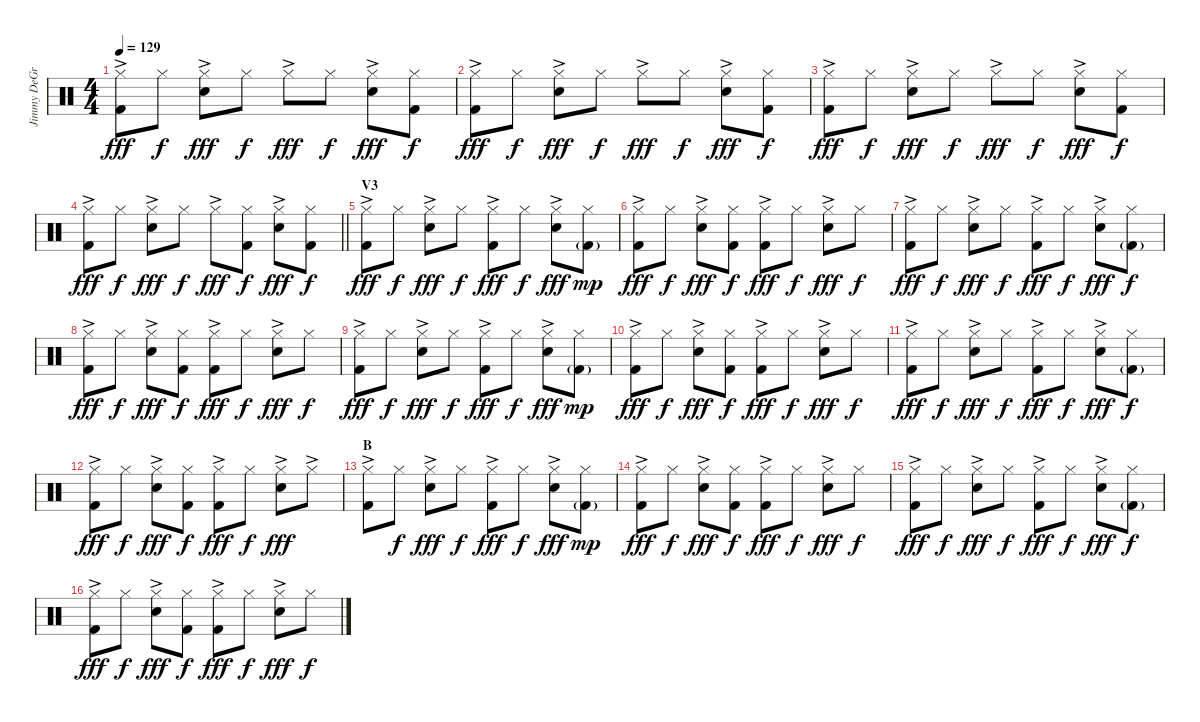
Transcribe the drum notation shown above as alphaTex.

\track ("Jimmy DeGrasso (Drums)" "Jimmy DeGr") {instrument percussion}
\staff {score}
\articulation defaults
\ts (4 4)
\tempo 129
\clef neutral
\ks c
("Hi-Hat (closed)"{ac} "Kick (hit) 2").8{dy fff} "Hi-Hat (closed)".8{dy f} ("Hi-Hat (closed)"{ac} "Electric Snare (hit)").8{dy fff} "Hi-Hat (closed)".8{dy f} "Hi-Hat (closed)"{ac}.8{dy fff} "Hi-Hat (closed)".8{dy f} ("Hi-Hat (closed)"{ac} "Electric Snare (hit)").8{dy fff} ("Hi-Hat (closed)" "Kick (hit) 2").8{dy f} |
("Hi-Hat (closed)"{ac} "Kick (hit) 2").8{dy fff} "Hi-Hat (closed)".8{dy f} ("Hi-Hat (closed)"{ac} "Electric Snare (hit)").8{dy fff} "Hi-Hat (closed)".8{dy f} "Hi-Hat (closed)"{ac}.8{dy fff} "Hi-Hat (closed)".8{dy f} ("Hi-Hat (closed)"{ac} "Electric Snare (hit)").8{dy fff} ("Hi-Hat (closed)" "Kick (hit) 2").8{dy f} |
("Hi-Hat (closed)"{ac} "Kick (hit) 2").8{dy fff} "Hi-Hat (closed)".8{dy f} ("Hi-Hat (closed)"{ac} "Electric Snare (hit)").8{dy fff} "Hi-Hat (closed)".8{dy f} "Hi-Hat (closed)"{ac}.8{dy fff} "Hi-Hat (closed)".8{dy f} ("Hi-Hat (closed)"{ac} "Electric Snare (hit)").8{dy fff} ("Hi-Hat (closed)" "Kick (hit) 2").8{dy f} |
\barLineRight lightlight
("Hi-Hat (closed)"{ac} "Kick (hit) 2").8{dy fff} "Hi-Hat (closed)".8{dy f} ("Hi-Hat (closed)"{ac} "Electric Snare (hit)").8{dy fff} "Hi-Hat (closed)".8{dy f} "Hi-Hat (closed)"{ac}.8{dy fff} ("Hi-Hat (closed)" "Kick (hit) 2").8{dy f} ("Hi-Hat (closed)"{ac} "Electric Snare (hit)").8{dy fff} ("Hi-Hat (closed)" "Kick (hit) 2").8{dy f} |
\section ("" "V3")
("Hi-Hat (closed)"{ac} "Kick (hit) 2").8{dy fff} "Hi-Hat (closed)".8{dy f} ("Hi-Hat (closed)"{ac} "Electric Snare (hit)").8{dy fff} "Hi-Hat (closed)".8{dy f} ("Hi-Hat (closed)"{ac} "Kick (hit) 2").8{dy fff} "Hi-Hat (closed)".8{dy f} ("Hi-Hat (closed)"{ac} "Electric Snare (hit)").8{dy fff} ("Hi-Hat (closed)" "Kick (hit) 2"{g}).8{dy mp} |
("Hi-Hat (closed)"{ac} "Kick (hit) 2").8{dy fff} "Hi-Hat (closed)".8{dy f} ("Hi-Hat (closed)"{ac} "Electric Snare (hit)").8{dy fff} ("Hi-Hat (closed)" "Kick (hit) 2").8{dy f} ("Hi-Hat (closed)"{ac} "Kick (hit) 2").8{dy fff} "Hi-Hat (closed)".8{dy f} ("Hi-Hat (closed)"{ac} "Electric Snare (hit)").8{dy fff} "Hi-Hat (closed)".8{dy f} |
("Hi-Hat (closed)"{ac} "Kick (hit) 2").8{dy fff} "Hi-Hat (closed)".8{dy f} ("Hi-Hat (closed)"{ac} "Electric Snare (hit)").8{dy fff} "Hi-Hat (closed)".8{dy f} ("Hi-Hat (closed)"{ac} "Kick (hit) 2").8{dy fff} "Hi-Hat (closed)".8{dy f} ("Hi-Hat (closed)"{ac} "Electric Snare (hit)").8{dy fff} ("Hi-Hat (closed)" "Kick (hit) 2"{g}).8{dy f} |
("Hi-Hat (closed)"{ac} "Kick (hit) 2").8{dy fff} "Hi-Hat (closed)".8{dy f} ("Hi-Hat (closed)"{ac} "Electric Snare (hit)").8{dy fff} ("Hi-Hat (closed)" "Kick (hit) 2").8{dy f} ("Hi-Hat (closed)"{ac} "Kick (hit) 2").8{dy fff} "Hi-Hat (closed)".8{dy f} ("Hi-Hat (closed)"{ac} "Electric Snare (hit)").8{dy fff} "Hi-Hat (closed)".8{dy f} |
("Hi-Hat (closed)"{ac} "Kick (hit) 2").8{dy fff} "Hi-Hat (closed)".8{dy f} ("Hi-Hat (closed)"{ac} "Electric Snare (hit)").8{dy fff} "Hi-Hat (closed)".8{dy f} ("Hi-Hat (closed)"{ac} "Kick (hit) 2").8{dy fff} "Hi-Hat (closed)".8{dy f} ("Hi-Hat (closed)"{ac} "Electric Snare (hit)").8{dy fff} ("Hi-Hat (closed)" "Kick (hit) 2"{g}).8{dy mp} |
("Hi-Hat (closed)"{ac} "Kick (hit) 2").8{dy fff} "Hi-Hat (closed)".8{dy f} ("Hi-Hat (closed)"{ac} "Electric Snare (hit)").8{dy fff} ("Hi-Hat (closed)" "Kick (hit) 2").8{dy f} ("Hi-Hat (closed)"{ac} "Kick (hit) 2").8{dy fff} "Hi-Hat (closed)".8{dy f} ("Hi-Hat (closed)"{ac} "Electric Snare (hit)").8{dy fff} "Hi-Hat (closed)".8{dy f} |
("Hi-Hat (closed)"{ac} "Kick (hit) 2").8{dy fff} "Hi-Hat (closed)".8{dy f} ("Hi-Hat (closed)"{ac} "Electric Snare (hit)").8{dy fff} "Hi-Hat (closed)".8{dy f} ("Hi-Hat (closed)"{ac} "Kick (hit) 2").8{dy fff} "Hi-Hat (closed)".8{dy f} ("Hi-Hat (closed)"{ac} "Electric Snare (hit)").8{dy fff} ("Hi-Hat (closed)" "Kick (hit) 2"{g}).8{dy f} |
("Hi-Hat (closed)"{ac} "Kick (hit) 2").8{dy fff} "Hi-Hat (closed)".8{dy f} ("Hi-Hat (closed)"{ac} "Electric Snare (hit)").8{dy fff} ("Hi-Hat (closed)" "Kick (hit) 2").8{dy f} ("Hi-Hat (closed)"{ac} "Kick (hit) 2").8{dy fff} "Hi-Hat (closed)".8{dy f} ("Hi-Hat (closed)"{ac} "Electric Snare (hit)").8{dy fff} "Hi-Hat (closed)"{ac}.8 |
\section ("" "B")
("Hi-Hat (closed)"{ac} "Kick (hit) 2").8 "Hi-Hat (closed)".8{dy f} ("Hi-Hat (closed)"{ac} "Electric Snare (hit)").8{dy fff} "Hi-Hat (closed)".8{dy f} ("Hi-Hat (closed)"{ac} "Kick (hit) 2").8{dy fff} "Hi-Hat (closed)".8{dy f} ("Hi-Hat (closed)"{ac} "Electric Snare (hit)").8{dy fff} ("Hi-Hat (closed)" "Kick (hit) 2"{g}).8{dy mp} |
("Hi-Hat (closed)"{ac} "Kick (hit) 2").8{dy fff} "Hi-Hat (closed)".8{dy f} ("Hi-Hat (closed)"{ac} "Electric Snare (hit)").8{dy fff} ("Hi-Hat (closed)" "Kick (hit) 2").8{dy f} ("Hi-Hat (closed)"{ac} "Kick (hit) 2").8{dy fff} "Hi-Hat (closed)".8{dy f} ("Hi-Hat (closed)"{ac} "Electric Snare (hit)").8{dy fff} "Hi-Hat (closed)".8{dy f} |
("Hi-Hat (closed)"{ac} "Kick (hit) 2").8{dy fff} "Hi-Hat (closed)".8{dy f} ("Hi-Hat (closed)"{ac} "Electric Snare (hit)").8{dy fff} "Hi-Hat (closed)".8{dy f} ("Hi-Hat (closed)"{ac} "Kick (hit) 2").8{dy fff} "Hi-Hat (closed)".8{dy f} ("Hi-Hat (closed)"{ac} "Electric Snare (hit)").8{dy fff} ("Hi-Hat (closed)" "Kick (hit) 2"{g}).8{dy f} |
("Hi-Hat (closed)"{ac} "Kick (hit) 2").8{dy fff} "Hi-Hat (closed)".8{dy f} ("Hi-Hat (closed)"{ac} "Electric Snare (hit)").8{dy fff} ("Hi-Hat (closed)" "Kick (hit) 2").8{dy f} ("Hi-Hat (closed)"{ac} "Kick (hit) 2").8{dy fff} "Hi-Hat (closed)".8{dy f} ("Hi-Hat (closed)"{ac} "Electric Snare (hit)").8{dy fff} "Hi-Hat (closed)".8{dy f}
